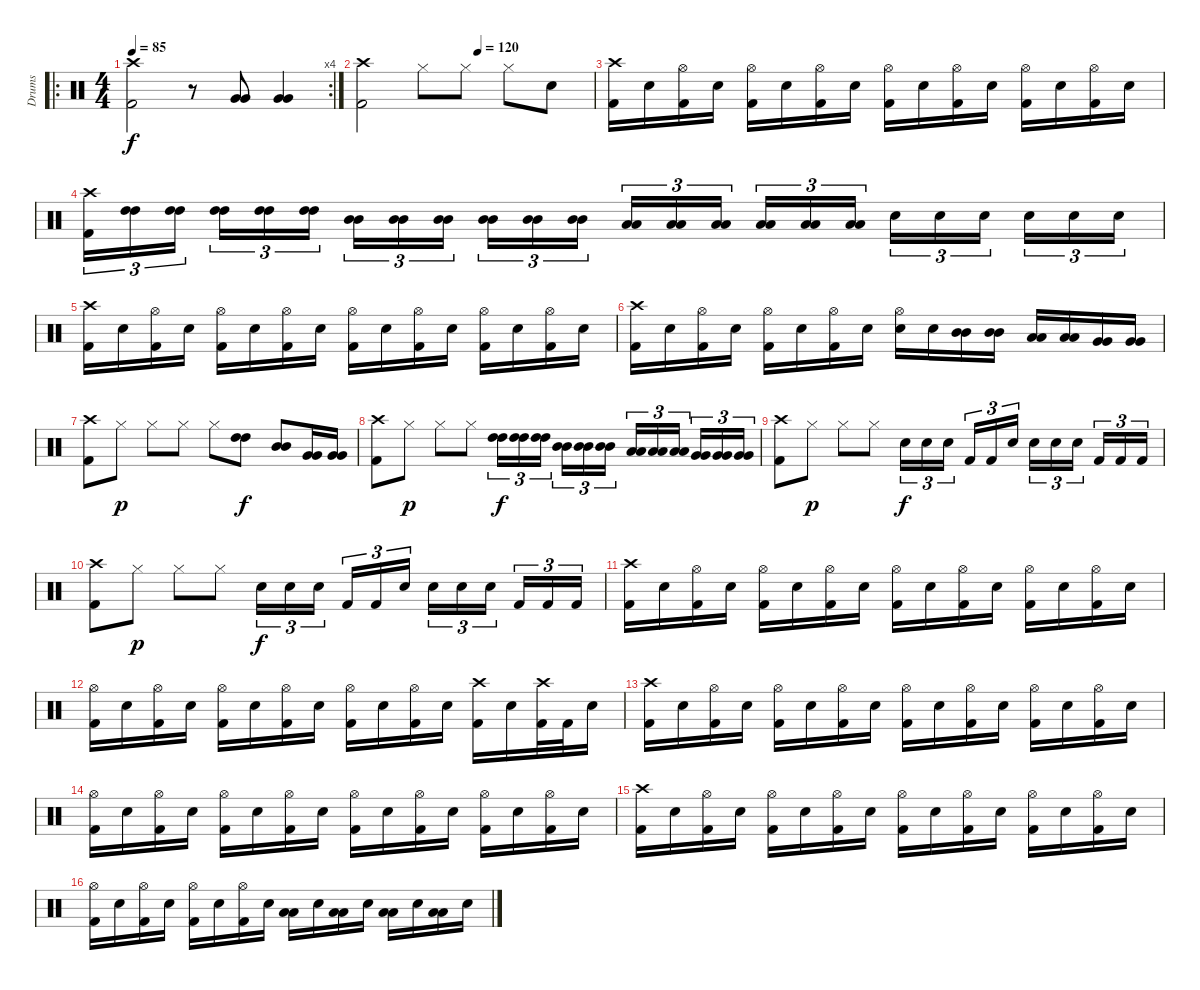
\track ("Drums" "Drums") {instrument percussion}
\staff {score}
\articulation defaults
\ro
\rc 4
\ts (4 4)
\tempo 85
\clef neutral
\ks c
("Crash high (hit)" "Kick (hit) 2").2{dy f balance 8} r.8 ("Very Low Tom (hit)" "Very Low Tom (hit)").8{balance 11} ("Very Low Tom (hit)" "Very Low Tom (hit)").4 |
\tempo (120 0.5)
("Crash high (hit)" "Kick (hit) 2").2{balance 8} "Hi-Hat (closed)".8 "Hi-Hat (closed)".8 "Hi-Hat (closed)".8 "Electric Snare (hit)".8 |
("Crash high (hit)" "Kick (hit) 2").16 "Electric Snare (hit)".16 ("Hi-Hat (open)" "Kick (hit) 2").16 "Electric Snare (hit)".16 ("Hi-Hat (open)" "Kick (hit) 2").16 "Electric Snare (hit)".16 ("Hi-Hat (open)" "Kick (hit) 2").16 "Electric Snare (hit)".16 ("Hi-Hat (open)" "Kick (hit) 2").16 "Electric Snare (hit)".16 ("Hi-Hat (open)" "Kick (hit) 2").16 "Electric Snare (hit)".16 ("Hi-Hat (open)" "Kick (hit) 2").16 "Electric Snare (hit)".16 ("Hi-Hat (open)" "Kick (hit) 2").16 "Electric Snare (hit)".16 |
("Crash high (hit)" "Kick (hit) 2").16{tu (3 2)} ("High Tom (hit)" "High Tom (hit)").16{tu (3 2) balance 10} ("High Tom (hit)" "High Tom (hit)").16{tu (3 2)} ("High Tom (hit)" "High Tom (hit)").16{tu (3 2)} ("High Tom (hit)" "High Tom (hit)").16{tu (3 2)} ("High Tom (hit)" "High Tom (hit)").16{tu (3 2)} ("Mid Tom (hit)" "Mid Tom (hit)").16{tu (3 2) balance 8} ("Mid Tom (hit)" "Mid Tom (hit)").16{tu (3 2)} ("Mid Tom (hit)" "Mid Tom (hit)").16{tu (3 2)} ("Mid Tom (hit)" "Mid Tom (hit)").16{tu (3 2)} ("Mid Tom (hit)" "Mid Tom (hit)").16{tu (3 2)} ("Mid Tom (hit)" "Mid Tom (hit)").16{tu (3 2)} ("Low Tom (hit)" "Low Tom (hit)").16{tu (3 2) balance 6} ("Low Tom (hit)" "Low Tom (hit)").16{tu (3 2)} ("Low Tom (hit)" "Low Tom (hit)").16{tu (3 2)} ("Low Tom (hit)" "Low Tom (hit)").16{tu (3 2)} ("Low Tom (hit)" "Low Tom (hit)").16{tu (3 2)} ("Low Tom (hit)" "Low Tom (hit)").16{tu (3 2)} "Electric Snare (hit)".16{tu (3 2) balance 8} "Electric Snare (hit)".16{tu (3 2)} "Electric Snare (hit)".16{tu (3 2)} "Electric Snare (hit)".16{tu (3 2)} "Electric Snare (hit)".16{tu (3 2)} "Electric Snare (hit)".16{tu (3 2)} |
("Crash high (hit)" "Kick (hit) 2").16 "Electric Snare (hit)".16 ("Hi-Hat (open)" "Kick (hit) 2").16 "Electric Snare (hit)".16 ("Hi-Hat (open)" "Kick (hit) 2").16 "Electric Snare (hit)".16 ("Hi-Hat (open)" "Kick (hit) 2").16 "Electric Snare (hit)".16 ("Hi-Hat (open)" "Kick (hit) 2").16 "Electric Snare (hit)".16 ("Hi-Hat (open)" "Kick (hit) 2").16 "Electric Snare (hit)".16 ("Hi-Hat (open)" "Kick (hit) 2").16 "Electric Snare (hit)".16 ("Hi-Hat (open)" "Kick (hit) 2").16 "Electric Snare (hit)".16 |
("Crash high (hit)" "Kick (hit) 2").16 "Electric Snare (hit)".16 ("Hi-Hat (open)" "Kick (hit) 2").16 "Electric Snare (hit)".16 ("Hi-Hat (open)" "Kick (hit) 2").16 "Electric Snare (hit)".16 ("Hi-Hat (open)" "Kick (hit) 2").16 "Electric Snare (hit)".16 ("Hi-Hat (open)" "Electric Snare (hit)").16 "Electric Snare (hit)".16 ("Mid Tom (hit)" "Mid Tom (hit)").16{balance 10} ("Mid Tom (hit)" "Mid Tom (hit)").16 ("Low Tom (hit)" "Low Tom (hit)").16{balance 8} ("Low Tom (hit)" "Low Tom (hit)").16 ("Very Low Tom (hit)" "Very Low Tom (hit)").16{balance 6} ("Very Low Tom (hit)" "Very Low Tom (hit)").16 |
("Crash high (hit)" "Kick (hit) 2").8{balance 8} "Hi-Hat (closed)".8{dy p} "Hi-Hat (closed)".8 "Hi-Hat (closed)".8 "Hi-Hat (closed)".8 ("High Tom (hit)" "High Tom (hit)").8{dy f balance 11} ("Mid Tom (hit)" "Mid Tom (hit)").8{balance 8} ("Very Low Tom (hit)" "Very Low Tom (hit)").16{balance 6} ("Very Low Tom (hit)" "Very Low Tom (hit)").16 |
("Crash high (hit)" "Kick (hit) 2").8{balance 8} "Hi-Hat (closed)".8{dy p} "Hi-Hat (closed)".8 "Hi-Hat (closed)".8 ("High Tom (hit)" "High Tom (hit)").16{tu (3 2) dy f balance 11} ("High Tom (hit)" "High Tom (hit)").16{tu (3 2)} ("High Tom (hit)" "High Tom (hit)").16{tu (3 2)} ("Mid Tom (hit)" "Mid Tom (hit)").16{tu (3 2) balance 9} ("Mid Tom (hit)" "Mid Tom (hit)").16{tu (3 2)} ("Mid Tom (hit)" "Mid Tom (hit)").16{tu (3 2)} ("Low Tom (hit)" "Low Tom (hit)").16{tu (3 2) balance 7} ("Low Tom (hit)" "Low Tom (hit)").16{tu (3 2)} ("Low Tom (hit)" "Low Tom (hit)").16{tu (3 2)} ("Very Low Tom (hit)" "Very Low Tom (hit)").16{tu (3 2) balance 6} ("Very Low Tom (hit)" "Very Low Tom (hit)").16{tu (3 2)} ("Very Low Tom (hit)" "Very Low Tom (hit)").16{tu (3 2)} |
("Crash high (hit)" "Kick (hit) 2").8{balance 8} "Hi-Hat (closed)".8{dy p} "Hi-Hat (closed)".8 "Hi-Hat (closed)".8 "Electric Snare (hit)".16{tu (3 2) dy f} "Electric Snare (hit)".16{tu (3 2)} "Electric Snare (hit)".16{tu (3 2)} "Kick (hit) 2".16{tu (3 2)} "Kick (hit) 2".16{tu (3 2)} "Electric Snare (hit)".16{tu (3 2)} "Electric Snare (hit)".16{tu (3 2)} "Electric Snare (hit)".16{tu (3 2)} "Electric Snare (hit)".16{tu (3 2)} "Kick (hit) 2".16{tu (3 2)} "Kick (hit) 2".16{tu (3 2)} "Kick (hit) 2".16{tu (3 2)} |
("Crash high (hit)" "Kick (hit) 2").8{balance 8} "Hi-Hat (closed)".8{dy p} "Hi-Hat (closed)".8 "Hi-Hat (closed)".8 "Electric Snare (hit)".16{tu (3 2) dy f} "Electric Snare (hit)".16{tu (3 2)} "Electric Snare (hit)".16{tu (3 2)} "Kick (hit) 2".16{tu (3 2)} "Kick (hit) 2".16{tu (3 2)} "Electric Snare (hit)".16{tu (3 2)} "Electric Snare (hit)".16{tu (3 2)} "Electric Snare (hit)".16{tu (3 2)} "Electric Snare (hit)".16{tu (3 2)} "Kick (hit) 2".16{tu (3 2)} "Kick (hit) 2".16{tu (3 2)} "Kick (hit) 2".16{tu (3 2)} |
("Crash high (hit)" "Kick (hit) 2").16 "Electric Snare (hit)".16 ("Hi-Hat (open)" "Kick (hit) 2").16 "Electric Snare (hit)".16 ("Hi-Hat (open)" "Kick (hit) 2").16 "Electric Snare (hit)".16 ("Hi-Hat (open)" "Kick (hit) 2").16 "Electric Snare (hit)".16 ("Hi-Hat (open)" "Kick (hit) 2").16 "Electric Snare (hit)".16 ("Hi-Hat (open)" "Kick (hit) 2").16 "Electric Snare (hit)".16 ("Hi-Hat (open)" "Kick (hit) 2").16 "Electric Snare (hit)".16 ("Hi-Hat (open)" "Kick (hit) 2").16 "Electric Snare (hit)".16 |
("Hi-Hat (open)" "Kick (hit) 2").16 "Electric Snare (hit)".16 ("Hi-Hat (open)" "Kick (hit) 2").16 "Electric Snare (hit)".16 ("Hi-Hat (open)" "Kick (hit) 2").16 "Electric Snare (hit)".16 ("Hi-Hat (open)" "Kick (hit) 2").16 "Electric Snare (hit)".16 ("Hi-Hat (open)" "Kick (hit) 2").16 "Electric Snare (hit)".16 ("Hi-Hat (open)" "Kick (hit) 2").16 "Electric Snare (hit)".16 ("Crash high (hit)" "Kick (hit) 2").16 "Electric Snare (hit)".16 ("Crash high (hit)" "Kick (hit) 2").32 "Kick (hit) 2".32 "Electric Snare (hit)".16 |
("Crash high (hit)" "Kick (hit) 2").16 "Electric Snare (hit)".16 ("Hi-Hat (open)" "Kick (hit) 2").16 "Electric Snare (hit)".16 ("Hi-Hat (open)" "Kick (hit) 2").16 "Electric Snare (hit)".16 ("Hi-Hat (open)" "Kick (hit) 2").16 "Electric Snare (hit)".16 ("Hi-Hat (open)" "Kick (hit) 2").16 "Electric Snare (hit)".16 ("Hi-Hat (open)" "Kick (hit) 2").16 "Electric Snare (hit)".16 ("Hi-Hat (open)" "Kick (hit) 2").16 "Electric Snare (hit)".16 ("Hi-Hat (open)" "Kick (hit) 2").16 "Electric Snare (hit)".16 |
("Hi-Hat (open)" "Kick (hit) 2").16 "Electric Snare (hit)".16 ("Hi-Hat (open)" "Kick (hit) 2").16 "Electric Snare (hit)".16 ("Hi-Hat (open)" "Kick (hit) 2").16 "Electric Snare (hit)".16 ("Hi-Hat (open)" "Kick (hit) 2").16 "Electric Snare (hit)".16 ("Hi-Hat (open)" "Kick (hit) 2").16 "Electric Snare (hit)".16 ("Hi-Hat (open)" "Kick (hit) 2").16 "Electric Snare (hit)".16 ("Hi-Hat (open)" "Kick (hit) 2").16 "Electric Snare (hit)".16 ("Hi-Hat (open)" "Kick (hit) 2").16 "Electric Snare (hit)".16 |
("Crash high (hit)" "Kick (hit) 2").16 "Electric Snare (hit)".16 ("Hi-Hat (open)" "Kick (hit) 2").16 "Electric Snare (hit)".16 ("Hi-Hat (open)" "Kick (hit) 2").16 "Electric Snare (hit)".16 ("Hi-Hat (open)" "Kick (hit) 2").16 "Electric Snare (hit)".16 ("Hi-Hat (open)" "Kick (hit) 2").16 "Electric Snare (hit)".16 ("Hi-Hat (open)" "Kick (hit) 2").16 "Electric Snare (hit)".16 ("Hi-Hat (open)" "Kick (hit) 2").16 "Electric Snare (hit)".16 ("Hi-Hat (open)" "Kick (hit) 2").16 "Electric Snare (hit)".16 |
("Hi-Hat (open)" "Kick (hit) 2").16 "Electric Snare (hit)".16 ("Hi-Hat (open)" "Kick (hit) 2").16 "Electric Snare (hit)".16 ("Hi-Hat (open)" "Kick (hit) 2").16 "Electric Snare (hit)".16 ("Hi-Hat (open)" "Kick (hit) 2").16 "Electric Snare (hit)".16 ("Low Tom (hit)" "Low Tom (hit)").16{balance 10} "Electric Snare (hit)".16{balance 8} ("Low Tom (hit)" "Low Tom (hit)").16{balance 10} "Electric Snare (hit)".16{balance 8} ("Low Tom (hit)" "Low Tom (hit)").16{balance 10} "Electric Snare (hit)".16{balance 8} ("Low Tom (hit)" "Low Tom (hit)").16{balance 10} "Electric Snare (hit)".16{balance 8}
